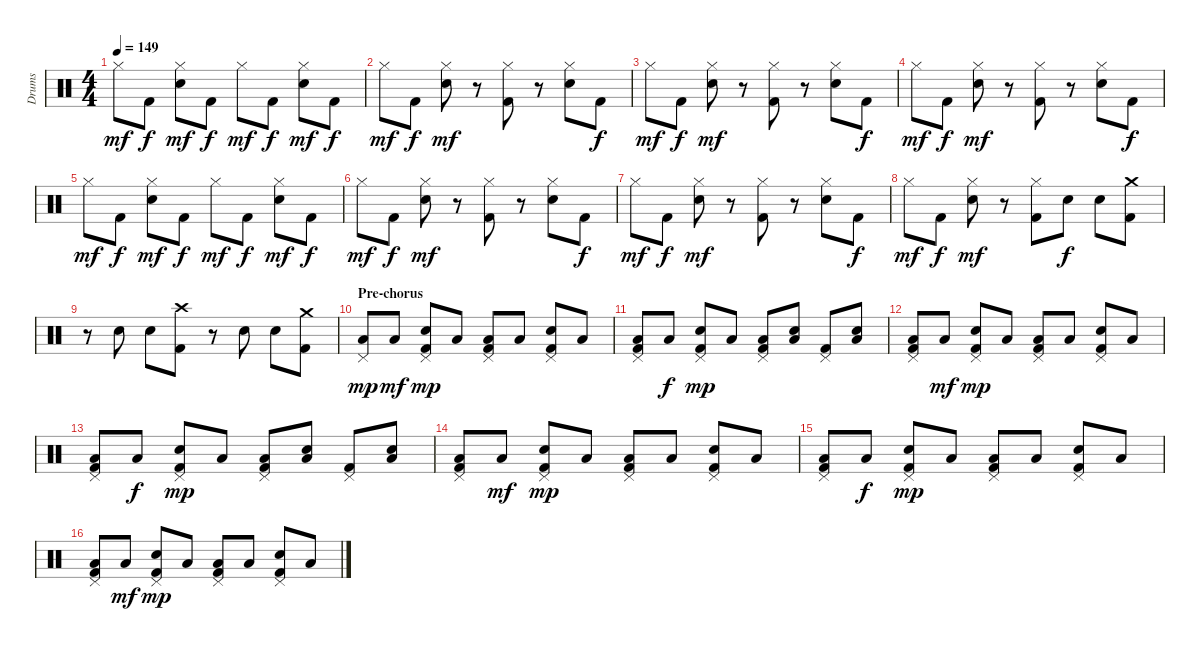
\track ("Drums" "Drums") {instrument percussion}
\staff {score}
\articulation defaults
\ts (4 4)
\tempo 149
\clef neutral
\ks c "Hi-Hat (closed)".8{dy mf} "Kick (hit) 2".8{dy f}
("Hi-Hat (closed)" "Snare (hit) 2").8{dy mf} "Kick (hit) 2".8{dy f} "Hi-Hat (closed)".8{dy mf} "Kick (hit) 2".8{dy f} ("Hi-Hat (closed)" "Snare (hit) 2").8{dy mf} "Kick (hit) 2".8{dy f} |
"Hi-Hat (closed)".8{dy mf} "Kick (hit) 2".8{dy f} ("Hi-Hat (closed)" "Snare (hit) 2").8{dy mf} r.8 ("Hi-Hat (closed)" "Kick (hit) 2").8 r.8 ("Hi-Hat (closed)" "Snare (hit) 2").8 "Kick (hit) 2".8{dy f} |
"Hi-Hat (closed)".8{dy mf} "Kick (hit) 2".8{dy f} ("Hi-Hat (closed)" "Snare (hit) 2").8{dy mf} r.8 ("Hi-Hat (closed)" "Kick (hit) 2").8 r.8 ("Hi-Hat (closed)" "Snare (hit) 2").8 "Kick (hit) 2".8{dy f} |
"Hi-Hat (closed)".8{dy mf} "Kick (hit) 2".8{dy f} ("Hi-Hat (closed)" "Snare (hit) 2").8{dy mf} r.8 ("Hi-Hat (closed)" "Kick (hit) 2").8 r.8 ("Hi-Hat (closed)" "Snare (hit) 2").8 "Kick (hit) 2".8{dy f} |
"Hi-Hat (closed)".8{dy mf} "Kick (hit) 2".8{dy f} ("Hi-Hat (closed)" "Snare (hit) 2").8{dy mf} "Kick (hit) 2".8{dy f} "Hi-Hat (closed)".8{dy mf} "Kick (hit) 2".8{dy f} ("Hi-Hat (closed)" "Snare (hit) 2").8{dy mf} "Kick (hit) 2".8{dy f} |
"Hi-Hat (closed)".8{dy mf} "Kick (hit) 2".8{dy f} ("Hi-Hat (closed)" "Snare (hit) 2").8{dy mf} r.8 ("Hi-Hat (closed)" "Kick (hit) 2").8 r.8 ("Hi-Hat (closed)" "Snare (hit) 2").8 "Kick (hit) 2".8{dy f} |
"Hi-Hat (closed)".8{dy mf} "Kick (hit) 2".8{dy f} ("Hi-Hat (closed)" "Snare (hit) 2").8{dy mf} r.8 ("Hi-Hat (closed)" "Kick (hit) 2").8 r.8 ("Hi-Hat (closed)" "Snare (hit) 2").8 "Kick (hit) 2".8{dy f} |
"Hi-Hat (closed)".8{dy mf} "Kick (hit) 2".8{dy f} ("Hi-Hat (closed)" "Snare (hit) 2").8{dy mf} r.8 ("Hi-Hat (closed)" "Kick (hit) 2").8 "Snare (hit) 2".8{dy f} "Snare (hit) 2".8 ("Crash medium (hit)" "Kick (hit) 2").8 |
r.8 "Snare (hit) 2".8 "Snare (hit) 2".8 ("Crash high (hit)" "Kick (hit) 2").8 r.8 "Snare (hit) 2".8 "Snare (hit) 2".8 ("Crash medium (hit)" "Kick (hit) 2").8 |
\section ("" "Pre-chorus")
("Pedal Hi-Hat (hit)" "Low Floor Tom (hit)").8{dy mp} "Low Floor Tom (hit)".8{dy mf} ("Pedal Hi-Hat (hit)" "Snare (hit) 2" "Kick (hit) 2").8{dy mp} "Low Floor Tom (hit)".8 ("Pedal Hi-Hat (hit)" "Low Floor Tom (hit)" "Kick (hit) 2").8 "Low Floor Tom (hit)".8 ("Pedal Hi-Hat (hit)" "Snare (hit) 2" "Kick (hit) 2").8 "Low Floor Tom (hit)".8 |
("Pedal Hi-Hat (hit)" "Low Floor Tom (hit)" "Kick (hit) 2").8 "Low Floor Tom (hit)".8{dy f} ("Pedal Hi-Hat (hit)" "Snare (hit) 2" "Kick (hit) 2").8{dy mp} "Low Floor Tom (hit)".8 ("Pedal Hi-Hat (hit)" "Low Floor Tom (hit)" "Kick (hit) 2").8 ("Snare (hit) 2" "Low Floor Tom (hit)").8 ("Pedal Hi-Hat (hit)" "Kick (hit) 2").8 ("Snare (hit) 2" "Low Floor Tom (hit)").8 |
("Pedal Hi-Hat (hit)" "Low Floor Tom (hit)" "Kick (hit) 2").8 "Low Floor Tom (hit)".8{dy mf} ("Pedal Hi-Hat (hit)" "Snare (hit) 2" "Kick (hit) 2").8{dy mp} "Low Floor Tom (hit)".8 ("Pedal Hi-Hat (hit)" "Low Floor Tom (hit)" "Kick (hit) 2").8 "Low Floor Tom (hit)".8 ("Pedal Hi-Hat (hit)" "Snare (hit) 2" "Kick (hit) 2").8 "Low Floor Tom (hit)".8 |
("Pedal Hi-Hat (hit)" "Low Floor Tom (hit)" "Kick (hit) 2").8 "Low Floor Tom (hit)".8{dy f} ("Pedal Hi-Hat (hit)" "Snare (hit) 2" "Kick (hit) 2").8{dy mp} "Low Floor Tom (hit)".8 ("Pedal Hi-Hat (hit)" "Low Floor Tom (hit)" "Kick (hit) 2").8 ("Snare (hit) 2" "Low Floor Tom (hit)").8 ("Pedal Hi-Hat (hit)" "Kick (hit) 2").8 ("Snare (hit) 2" "Low Floor Tom (hit)").8 |
("Pedal Hi-Hat (hit)" "Low Floor Tom (hit)" "Kick (hit) 2").8 "Low Floor Tom (hit)".8{dy mf} ("Pedal Hi-Hat (hit)" "Snare (hit) 2" "Kick (hit) 2").8{dy mp} "Low Floor Tom (hit)".8 ("Pedal Hi-Hat (hit)" "Low Floor Tom (hit)" "Kick (hit) 2").8 "Low Floor Tom (hit)".8 ("Pedal Hi-Hat (hit)" "Snare (hit) 2" "Kick (hit) 2").8 "Low Floor Tom (hit)".8 |
("Pedal Hi-Hat (hit)" "Low Floor Tom (hit)" "Kick (hit) 2").8 "Low Floor Tom (hit)".8{dy f} ("Pedal Hi-Hat (hit)" "Snare (hit) 2" "Kick (hit) 2").8{dy mp} "Low Floor Tom (hit)".8 ("Pedal Hi-Hat (hit)" "Low Floor Tom (hit)" "Kick (hit) 2").8 "Low Floor Tom (hit)".8 ("Pedal Hi-Hat (hit)" "Snare (hit) 2" "Kick (hit) 2").8 "Low Floor Tom (hit)".8 |
("Pedal Hi-Hat (hit)" "Low Floor Tom (hit)" "Kick (hit) 2").8 "Low Floor Tom (hit)".8{dy mf} ("Pedal Hi-Hat (hit)" "Snare (hit) 2" "Kick (hit) 2").8{dy mp} "Low Floor Tom (hit)".8 ("Pedal Hi-Hat (hit)" "Low Floor Tom (hit)" "Kick (hit) 2").8 "Low Floor Tom (hit)".8 ("Pedal Hi-Hat (hit)" "Snare (hit) 2" "Kick (hit) 2").8 "Low Floor Tom (hit)".8
